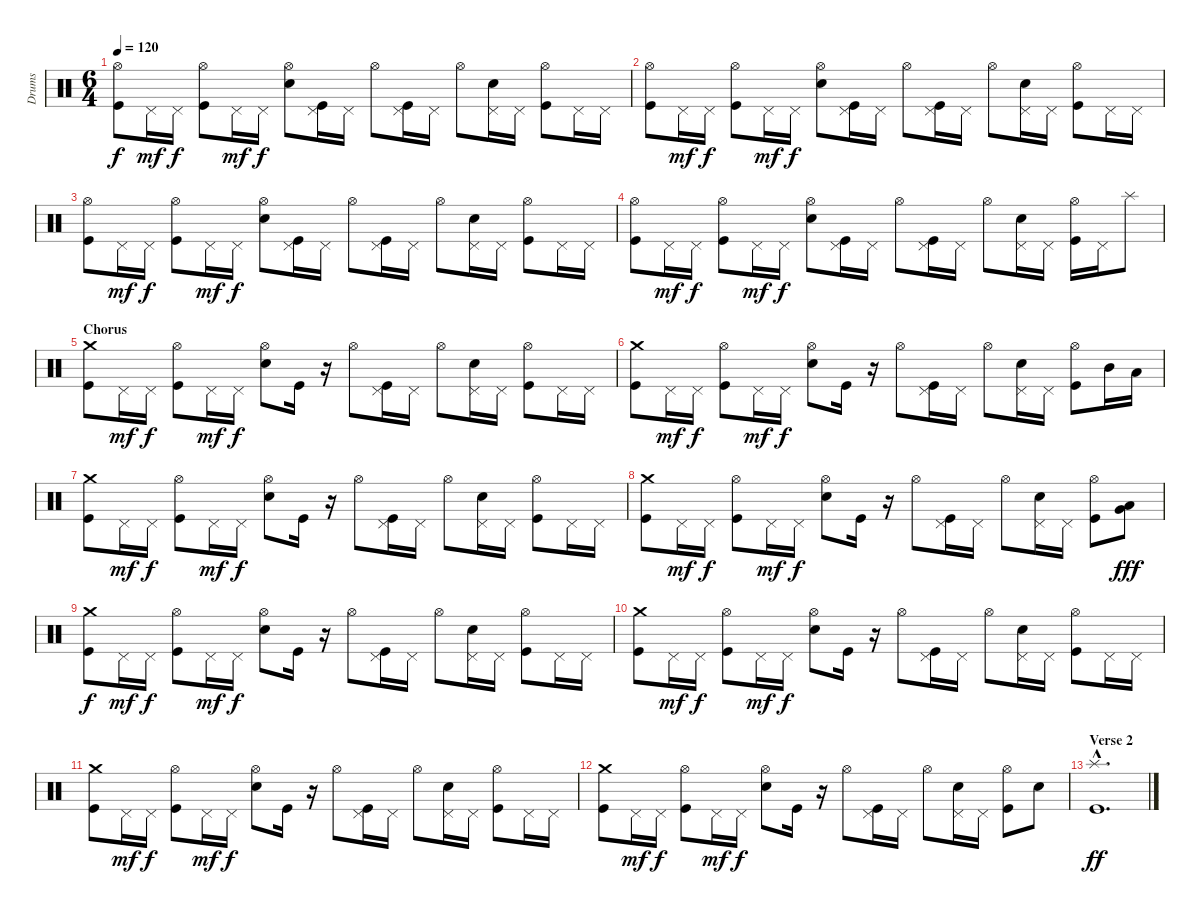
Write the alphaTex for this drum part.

\track ("Drums" "Drums") {instrument percussion}
\staff {score}
\articulation defaults
\ts (6 4)
\tempo 120
\clef neutral
\ks c
("Hi-Hat (open)" "Kick (hit)").8{dy f} "Pedal Hi-Hat (hit)".16{dy mf} "Pedal Hi-Hat (hit)".16{dy f} ("Hi-Hat (open)" "Kick (hit)").8 "Pedal Hi-Hat (hit)".16{dy mf} "Pedal Hi-Hat (hit)".16{dy f} ("Hi-Hat (open)" "Electric Snare (hit)").8 ("Pedal Hi-Hat (hit)" "Kick (hit)").16 "Pedal Hi-Hat (hit)".16 "Hi-Hat (open)".8 ("Pedal Hi-Hat (hit)" "Kick (hit)").16 "Pedal Hi-Hat (hit)".16 "Hi-Hat (open)".8 ("Pedal Hi-Hat (hit)" "Electric Snare (hit)").16 "Pedal Hi-Hat (hit)".16 ("Hi-Hat (open)" "Kick (hit)").8 "Pedal Hi-Hat (hit)".16 "Pedal Hi-Hat (hit)".16 |
("Hi-Hat (open)" "Kick (hit)").8 "Pedal Hi-Hat (hit)".16{dy mf} "Pedal Hi-Hat (hit)".16{dy f} ("Hi-Hat (open)" "Kick (hit)").8 "Pedal Hi-Hat (hit)".16{dy mf} "Pedal Hi-Hat (hit)".16{dy f} ("Hi-Hat (open)" "Electric Snare (hit)").8 ("Pedal Hi-Hat (hit)" "Kick (hit)").16 "Pedal Hi-Hat (hit)".16 "Hi-Hat (open)".8 ("Pedal Hi-Hat (hit)" "Kick (hit)").16 "Pedal Hi-Hat (hit)".16 "Hi-Hat (open)".8 ("Pedal Hi-Hat (hit)" "Electric Snare (hit)").16 "Pedal Hi-Hat (hit)".16 ("Hi-Hat (open)" "Kick (hit)").8 "Pedal Hi-Hat (hit)".16 "Pedal Hi-Hat (hit)".16 |
("Hi-Hat (open)" "Kick (hit)").8 "Pedal Hi-Hat (hit)".16{dy mf} "Pedal Hi-Hat (hit)".16{dy f} ("Hi-Hat (open)" "Kick (hit)").8 "Pedal Hi-Hat (hit)".16{dy mf} "Pedal Hi-Hat (hit)".16{dy f} ("Hi-Hat (open)" "Electric Snare (hit)").8 ("Pedal Hi-Hat (hit)" "Kick (hit)").16 "Pedal Hi-Hat (hit)".16 "Hi-Hat (open)".8 ("Pedal Hi-Hat (hit)" "Kick (hit)").16 "Pedal Hi-Hat (hit)".16 "Hi-Hat (open)".8 ("Pedal Hi-Hat (hit)" "Electric Snare (hit)").16 "Pedal Hi-Hat (hit)".16 ("Hi-Hat (open)" "Kick (hit)").8 "Pedal Hi-Hat (hit)".16 "Pedal Hi-Hat (hit)".16 |
("Hi-Hat (open)" "Kick (hit)").8 "Pedal Hi-Hat (hit)".16{dy mf} "Pedal Hi-Hat (hit)".16{dy f} ("Hi-Hat (open)" "Kick (hit)").8 "Pedal Hi-Hat (hit)".16{dy mf} "Pedal Hi-Hat (hit)".16{dy f} ("Hi-Hat (open)" "Electric Snare (hit)").8 ("Pedal Hi-Hat (hit)" "Kick (hit)").16 "Pedal Hi-Hat (hit)".16 "Hi-Hat (open)".8 ("Pedal Hi-Hat (hit)" "Kick (hit)").16 "Pedal Hi-Hat (hit)".16 "Hi-Hat (open)".8 ("Pedal Hi-Hat (hit)" "Electric Snare (hit)").16 "Pedal Hi-Hat (hit)".16 ("Hi-Hat (open)" "Kick (hit)").16 "Pedal Hi-Hat (hit)".16 "Splash (hit)".8 |
\section ("" "Chorus")
("Crash medium (hit)" "Kick (hit)").8 "Pedal Hi-Hat (hit)".16{dy mf} "Pedal Hi-Hat (hit)".16{dy f} ("Hi-Hat (open)" "Kick (hit)").8 "Pedal Hi-Hat (hit)".16{dy mf} "Pedal Hi-Hat (hit)".16{dy f} ("Hi-Hat (open)" "Electric Snare (hit)").8 "Kick (hit)".16 r.16 "Hi-Hat (open)".8 ("Pedal Hi-Hat (hit)" "Kick (hit)").16 "Pedal Hi-Hat (hit)".16 "Hi-Hat (open)".8 ("Pedal Hi-Hat (hit)" "Electric Snare (hit)").16 "Pedal Hi-Hat (hit)".16 ("Hi-Hat (open)" "Kick (hit)").8 "Pedal Hi-Hat (hit)".16 "Pedal Hi-Hat (hit)".16 |
("Crash medium (hit)" "Kick (hit)").8 "Pedal Hi-Hat (hit)".16{dy mf} "Pedal Hi-Hat (hit)".16{dy f} ("Hi-Hat (open)" "Kick (hit)").8 "Pedal Hi-Hat (hit)".16{dy mf} "Pedal Hi-Hat (hit)".16{dy f} ("Hi-Hat (open)" "Electric Snare (hit)").8 "Kick (hit)".16 r.16 "Hi-Hat (open)".8 ("Pedal Hi-Hat (hit)" "Kick (hit)").16 "Pedal Hi-Hat (hit)".16 "Hi-Hat (open)".8 ("Pedal Hi-Hat (hit)" "Electric Snare (hit)").16 "Pedal Hi-Hat (hit)".16 ("Hi-Hat (open)" "Kick (hit)").8 "Mid Tom (hit)".16 "Low Tom (hit)".16 |
("Crash medium (hit)" "Kick (hit)").8 "Pedal Hi-Hat (hit)".16{dy mf} "Pedal Hi-Hat (hit)".16{dy f} ("Hi-Hat (open)" "Kick (hit)").8 "Pedal Hi-Hat (hit)".16{dy mf} "Pedal Hi-Hat (hit)".16{dy f} ("Hi-Hat (open)" "Electric Snare (hit)").8 "Kick (hit)".16 r.16 "Hi-Hat (open)".8 ("Pedal Hi-Hat (hit)" "Kick (hit)").16 "Pedal Hi-Hat (hit)".16 "Hi-Hat (open)".8 ("Pedal Hi-Hat (hit)" "Electric Snare (hit)").16 "Pedal Hi-Hat (hit)".16 ("Hi-Hat (open)" "Kick (hit)").8 "Pedal Hi-Hat (hit)".16 "Pedal Hi-Hat (hit)".16 |
("Crash medium (hit)" "Kick (hit)").8 "Pedal Hi-Hat (hit)".16{dy mf} "Pedal Hi-Hat (hit)".16{dy f} ("Hi-Hat (open)" "Kick (hit)").8 "Pedal Hi-Hat (hit)".16{dy mf} "Pedal Hi-Hat (hit)".16{dy f} ("Hi-Hat (open)" "Electric Snare (hit)").8 "Kick (hit)".16 r.16 "Hi-Hat (open)".8 ("Pedal Hi-Hat (hit)" "Kick (hit)").16 "Pedal Hi-Hat (hit)".16 "Hi-Hat (open)".8 ("Pedal Hi-Hat (hit)" "Electric Snare (hit)").16 "Pedal Hi-Hat (hit)".16 ("Hi-Hat (open)" "Kick (hit)").8 ("Low Floor Tom (hit)" "Very Low Tom (hit)").8{dy fff} |
("Crash medium (hit)" "Kick (hit)").8{dy f} "Pedal Hi-Hat (hit)".16{dy mf} "Pedal Hi-Hat (hit)".16{dy f} ("Hi-Hat (open)" "Kick (hit)").8 "Pedal Hi-Hat (hit)".16{dy mf} "Pedal Hi-Hat (hit)".16{dy f} ("Hi-Hat (open)" "Electric Snare (hit)").8 "Kick (hit)".16 r.16 "Hi-Hat (open)".8 ("Pedal Hi-Hat (hit)" "Kick (hit)").16 "Pedal Hi-Hat (hit)".16 "Hi-Hat (open)".8 ("Pedal Hi-Hat (hit)" "Electric Snare (hit)").16 "Pedal Hi-Hat (hit)".16 ("Hi-Hat (open)" "Kick (hit)").8 "Pedal Hi-Hat (hit)".16 "Pedal Hi-Hat (hit)".16 |
("Crash medium (hit)" "Kick (hit)").8 "Pedal Hi-Hat (hit)".16{dy mf} "Pedal Hi-Hat (hit)".16{dy f} ("Hi-Hat (open)" "Kick (hit)").8 "Pedal Hi-Hat (hit)".16{dy mf} "Pedal Hi-Hat (hit)".16{dy f} ("Hi-Hat (open)" "Electric Snare (hit)").8 "Kick (hit)".16 r.16 "Hi-Hat (open)".8 ("Pedal Hi-Hat (hit)" "Kick (hit)").16 "Pedal Hi-Hat (hit)".16 "Hi-Hat (open)".8 ("Pedal Hi-Hat (hit)" "Electric Snare (hit)").16 "Pedal Hi-Hat (hit)".16 ("Hi-Hat (open)" "Kick (hit)").8 "Pedal Hi-Hat (hit)".16 "Pedal Hi-Hat (hit)".16 |
("Crash medium (hit)" "Kick (hit)").8 "Pedal Hi-Hat (hit)".16{dy mf} "Pedal Hi-Hat (hit)".16{dy f} ("Hi-Hat (open)" "Kick (hit)").8 "Pedal Hi-Hat (hit)".16{dy mf} "Pedal Hi-Hat (hit)".16{dy f} ("Hi-Hat (open)" "Electric Snare (hit)").8 "Kick (hit)".16 r.16 "Hi-Hat (open)".8 ("Pedal Hi-Hat (hit)" "Kick (hit)").16 "Pedal Hi-Hat (hit)".16 "Hi-Hat (open)".8 ("Pedal Hi-Hat (hit)" "Electric Snare (hit)").16 "Pedal Hi-Hat (hit)".16 ("Hi-Hat (open)" "Kick (hit)").8 "Pedal Hi-Hat (hit)".16 "Pedal Hi-Hat (hit)".16 |
("Crash medium (hit)" "Kick (hit)").8 "Pedal Hi-Hat (hit)".16{dy mf} "Pedal Hi-Hat (hit)".16{dy f} ("Hi-Hat (open)" "Kick (hit)").8 "Pedal Hi-Hat (hit)".16{dy mf} "Pedal Hi-Hat (hit)".16{dy f} ("Hi-Hat (open)" "Electric Snare (hit)").8 "Kick (hit)".16 r.16 "Hi-Hat (open)".8 ("Pedal Hi-Hat (hit)" "Kick (hit)").16 "Pedal Hi-Hat (hit)".16 "Hi-Hat (open)".8 ("Pedal Hi-Hat (hit)" "Electric Snare (hit)").16 "Pedal Hi-Hat (hit)".16 ("Hi-Hat (open)" "Kick (hit)").8 "Electric Snare (hit)".8 |
\section ("" "Verse 2")
("Splash (hit)"{hac} "Kick (hit)"{hac}).1{d dy ff}
